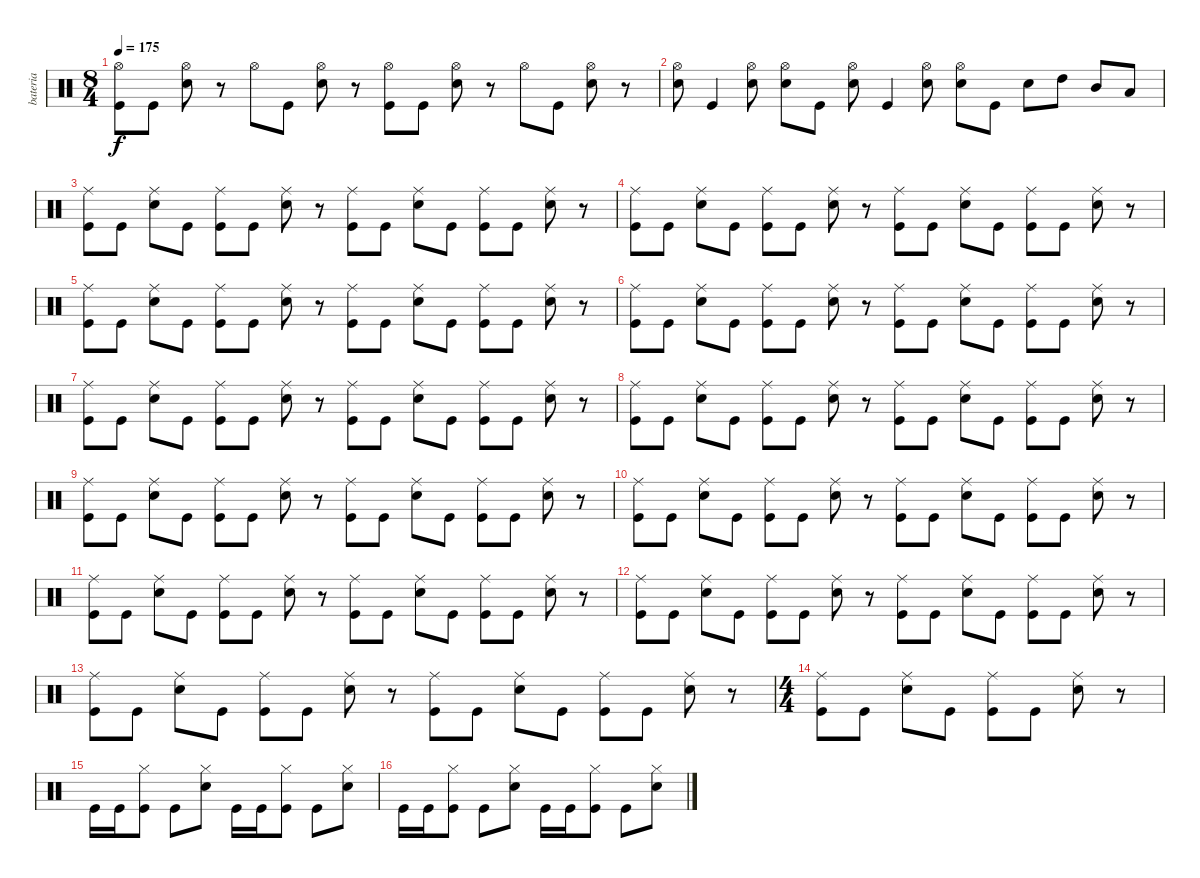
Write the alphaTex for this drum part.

\track ("bateria" "bateria") {instrument percussion}
\staff {score}
\articulation defaults
\ts (8 4)
\tempo 175
\clef neutral
\ks c
("Hi-Hat (open)" "Kick (hit)").8{dy f} "Kick (hit)".8 ("Hi-Hat (open)" "Snare (hit) 2").8 r.8 "Hi-Hat (open)".8 "Kick (hit)".8 ("Hi-Hat (open)" "Snare (hit) 2").8 r.8 ("Hi-Hat (open)" "Kick (hit)").8 "Kick (hit)".8 ("Hi-Hat (open)" "Snare (hit) 2").8 r.8 "Hi-Hat (open)".8 "Kick (hit)".8 ("Hi-Hat (open)" "Snare (hit) 2").8 r.8 |
("Snare (hit) 2" "Hi-Hat (open)").8 "Kick (hit)".4 ("Snare (hit) 2" "Hi-Hat (open)").8 ("Snare (hit) 2" "Hi-Hat (open)").8 "Kick (hit)".8 ("Snare (hit) 2" "Hi-Hat (open)").8 "Kick (hit)".4 ("Snare (hit) 2" "Hi-Hat (open)").8 ("Snare (hit) 2" "Hi-Hat (open)").8 "Kick (hit)".8 "Snare (hit) 2".8 "High Tom (hit)".8 "Mid Tom (hit)".8 "Low Tom (hit)".8 |
("Ride (middle)" "Kick (hit)").8 "Kick (hit)".8 ("Ride (middle)" "Snare (hit) 2").8 "Kick (hit)".8 ("Ride (middle)" "Kick (hit)").8 "Kick (hit)".8 ("Ride (middle)" "Snare (hit) 2").8 r.8 ("Ride (middle)" "Kick (hit)").8 "Kick (hit)".8 ("Ride (middle)" "Snare (hit) 2").8 "Kick (hit)".8 ("Ride (middle)" "Kick (hit)").8 "Kick (hit)".8 ("Ride (middle)" "Snare (hit) 2").8 r.8 |
("Ride (middle)" "Kick (hit)").8 "Kick (hit)".8 ("Ride (middle)" "Snare (hit) 2").8 "Kick (hit)".8 ("Ride (middle)" "Kick (hit)").8 "Kick (hit)".8 ("Ride (middle)" "Snare (hit) 2").8 r.8 ("Ride (middle)" "Kick (hit)").8 "Kick (hit)".8 ("Ride (middle)" "Snare (hit) 2").8 "Kick (hit)".8 ("Ride (middle)" "Kick (hit)").8 "Kick (hit)".8 ("Ride (middle)" "Snare (hit) 2").8 r.8 |
("Ride (middle)" "Kick (hit)").8 "Kick (hit)".8 ("Ride (middle)" "Snare (hit) 2").8 "Kick (hit)".8 ("Ride (middle)" "Kick (hit)").8 "Kick (hit)".8 ("Ride (middle)" "Snare (hit) 2").8 r.8 ("Ride (middle)" "Kick (hit)").8 "Kick (hit)".8 ("Ride (middle)" "Snare (hit) 2").8 "Kick (hit)".8 ("Ride (middle)" "Kick (hit)").8 "Kick (hit)".8 ("Ride (middle)" "Snare (hit) 2").8 r.8 |
("Ride (middle)" "Kick (hit)").8 "Kick (hit)".8 ("Ride (middle)" "Snare (hit) 2").8 "Kick (hit)".8 ("Ride (middle)" "Kick (hit)").8 "Kick (hit)".8 ("Ride (middle)" "Snare (hit) 2").8 r.8 ("Ride (middle)" "Kick (hit)").8 "Kick (hit)".8 ("Ride (middle)" "Snare (hit) 2").8 "Kick (hit)".8 ("Ride (middle)" "Kick (hit)").8 "Kick (hit)".8 ("Ride (middle)" "Snare (hit) 2").8 r.8 |
("Ride (middle)" "Kick (hit)").8 "Kick (hit)".8 ("Ride (middle)" "Snare (hit) 2").8 "Kick (hit)".8 ("Ride (middle)" "Kick (hit)").8 "Kick (hit)".8 ("Ride (middle)" "Snare (hit) 2").8 r.8 ("Ride (middle)" "Kick (hit)").8 "Kick (hit)".8 ("Ride (middle)" "Snare (hit) 2").8 "Kick (hit)".8 ("Ride (middle)" "Kick (hit)").8 "Kick (hit)".8 ("Ride (middle)" "Snare (hit) 2").8 r.8 |
("Ride (middle)" "Kick (hit)").8 "Kick (hit)".8 ("Ride (middle)" "Snare (hit) 2").8 "Kick (hit)".8 ("Ride (middle)" "Kick (hit)").8 "Kick (hit)".8 ("Ride (middle)" "Snare (hit) 2").8 r.8 ("Ride (middle)" "Kick (hit)").8 "Kick (hit)".8 ("Ride (middle)" "Snare (hit) 2").8 "Kick (hit)".8 ("Ride (middle)" "Kick (hit)").8 "Kick (hit)".8 ("Ride (middle)" "Snare (hit) 2").8 r.8 |
("Ride (middle)" "Kick (hit)").8 "Kick (hit)".8 ("Ride (middle)" "Snare (hit) 2").8 "Kick (hit)".8 ("Ride (middle)" "Kick (hit)").8 "Kick (hit)".8 ("Ride (middle)" "Snare (hit) 2").8 r.8 ("Ride (middle)" "Kick (hit)").8 "Kick (hit)".8 ("Ride (middle)" "Snare (hit) 2").8 "Kick (hit)".8 ("Ride (middle)" "Kick (hit)").8 "Kick (hit)".8 ("Ride (middle)" "Snare (hit) 2").8 r.8 |
("Ride (middle)" "Kick (hit)").8 "Kick (hit)".8 ("Ride (middle)" "Snare (hit) 2").8 "Kick (hit)".8 ("Ride (middle)" "Kick (hit)").8 "Kick (hit)".8 ("Ride (middle)" "Snare (hit) 2").8 r.8 ("Ride (middle)" "Kick (hit)").8 "Kick (hit)".8 ("Ride (middle)" "Snare (hit) 2").8 "Kick (hit)".8 ("Ride (middle)" "Kick (hit)").8 "Kick (hit)".8 ("Ride (middle)" "Snare (hit) 2").8 r.8 |
("Ride (middle)" "Kick (hit)").8 "Kick (hit)".8 ("Ride (middle)" "Snare (hit) 2").8 "Kick (hit)".8 ("Ride (middle)" "Kick (hit)").8 "Kick (hit)".8 ("Ride (middle)" "Snare (hit) 2").8 r.8 ("Ride (middle)" "Kick (hit)").8 "Kick (hit)".8 ("Ride (middle)" "Snare (hit) 2").8 "Kick (hit)".8 ("Ride (middle)" "Kick (hit)").8 "Kick (hit)".8 ("Ride (middle)" "Snare (hit) 2").8 r.8 |
("Ride (middle)" "Kick (hit)").8 "Kick (hit)".8 ("Ride (middle)" "Snare (hit) 2").8 "Kick (hit)".8 ("Ride (middle)" "Kick (hit)").8 "Kick (hit)".8 ("Ride (middle)" "Snare (hit) 2").8 r.8 ("Ride (middle)" "Kick (hit)").8 "Kick (hit)".8 ("Ride (middle)" "Snare (hit) 2").8 "Kick (hit)".8 ("Ride (middle)" "Kick (hit)").8 "Kick (hit)".8 ("Ride (middle)" "Snare (hit) 2").8 r.8 |
("Ride (middle)" "Kick (hit)").8 "Kick (hit)".8 ("Ride (middle)" "Snare (hit) 2").8 "Kick (hit)".8 ("Ride (middle)" "Kick (hit)").8 "Kick (hit)".8 ("Ride (middle)" "Snare (hit) 2").8 r.8 ("Ride (middle)" "Kick (hit)").8 "Kick (hit)".8 ("Ride (middle)" "Snare (hit) 2").8 "Kick (hit)".8 ("Ride (middle)" "Kick (hit)").8 "Kick (hit)".8 ("Ride (middle)" "Snare (hit) 2").8 r.8 |
\ts (4 4)
("Ride (middle)" "Kick (hit)").8 "Kick (hit)".8 ("Ride (middle)" "Snare (hit) 2").8 "Kick (hit)".8 ("Ride (middle)" "Kick (hit)").8 "Kick (hit)".8 ("Ride (middle)" "Snare (hit) 2").8 r.8 |
"Kick (hit)".16 "Kick (hit)".16 ("Kick (hit)" "Hi-Hat (closed)").8 "Kick (hit)".8 ("Snare (hit) 2" "Hi-Hat (closed)").8 "Kick (hit)".16 "Kick (hit)".16 ("Kick (hit)" "Hi-Hat (closed)").8 "Kick (hit)".8 ("Snare (hit) 2" "Hi-Hat (closed)").8 |
"Kick (hit)".16 "Kick (hit)".16 ("Kick (hit)" "Hi-Hat (closed)").8 "Kick (hit)".8 ("Snare (hit) 2" "Hi-Hat (closed)").8 "Kick (hit)".16 "Kick (hit)".16 ("Kick (hit)" "Hi-Hat (closed)").8 "Kick (hit)".8 ("Snare (hit) 2" "Hi-Hat (closed)").8
